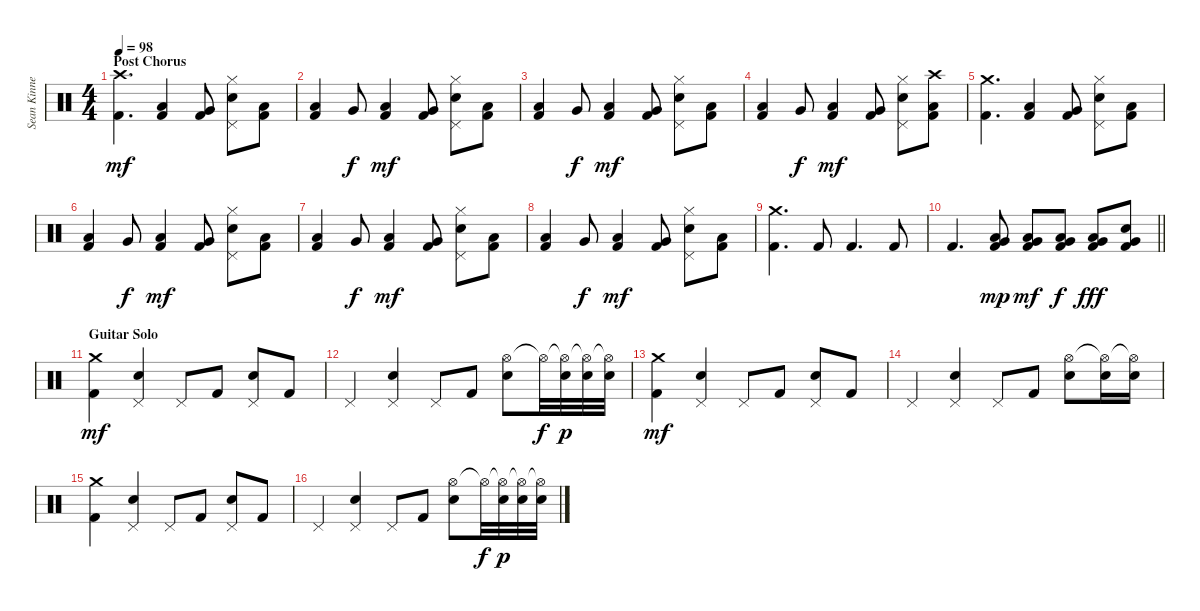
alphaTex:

\track ("Sean Kinney" "Sean Kinne") {instrument percussion}
\staff {score}
\articulation defaults
\ts (4 4)
\section ("" "Post Chorus")
\tempo 98
\clef neutral
\ks c
("Crash high (hit)" "Kick (hit) 2").4{d dy mf} ("Low Floor Tom (hit)" "Kick (hit) 2").4 ("Very Low Tom (hit)" "Kick (hit) 2").8 ("Hi-Hat (closed)" "Snare (hit) 2" "Pedal Hi-Hat (hit)").8 ("Low Floor Tom (hit)" "Kick (hit) 2").8 |
("Low Floor Tom (hit)" "Kick (hit) 2").4 "Very Low Tom (hit)".8{dy f} ("Low Floor Tom (hit)" "Kick (hit) 2").4{dy mf} ("Very Low Tom (hit)" "Kick (hit) 2").8 ("Hi-Hat (closed)" "Snare (hit) 2" "Pedal Hi-Hat (hit)").8 ("Low Floor Tom (hit)" "Kick (hit) 2").8 |
("Low Floor Tom (hit)" "Kick (hit) 2").4 "Very Low Tom (hit)".8{dy f} ("Low Floor Tom (hit)" "Kick (hit) 2").4{dy mf} ("Very Low Tom (hit)" "Kick (hit) 2").8 ("Hi-Hat (closed)" "Snare (hit) 2" "Pedal Hi-Hat (hit)").8 ("Low Floor Tom (hit)" "Kick (hit) 2").8 |
("Low Floor Tom (hit)" "Kick (hit) 2").4 "Very Low Tom (hit)".8{dy f} ("Low Floor Tom (hit)" "Kick (hit) 2").4{dy mf} ("Very Low Tom (hit)" "Kick (hit) 2").8 ("Hi-Hat (closed)" "Snare (hit) 2" "Pedal Hi-Hat (hit)").8 ("Low Floor Tom (hit)" "Crash high (hit)" "Kick (hit) 2").8 |
("Crash medium (hit)" "Kick (hit) 2").4{d} ("Low Floor Tom (hit)" "Kick (hit) 2").4 ("Very Low Tom (hit)" "Kick (hit) 2").8 ("Hi-Hat (closed)" "Snare (hit) 2" "Pedal Hi-Hat (hit)").8 ("Low Floor Tom (hit)" "Kick (hit) 2").8 |
("Low Floor Tom (hit)" "Kick (hit) 2").4 "Very Low Tom (hit)".8{dy f} ("Low Floor Tom (hit)" "Kick (hit) 2").4{dy mf} ("Very Low Tom (hit)" "Kick (hit) 2").8 ("Hi-Hat (closed)" "Snare (hit) 2" "Pedal Hi-Hat (hit)").8 ("Low Floor Tom (hit)" "Kick (hit) 2").8 |
("Low Floor Tom (hit)" "Kick (hit) 2").4 "Very Low Tom (hit)".8{dy f} ("Low Floor Tom (hit)" "Kick (hit) 2").4{dy mf} ("Very Low Tom (hit)" "Kick (hit) 2").8 ("Hi-Hat (closed)" "Snare (hit) 2" "Pedal Hi-Hat (hit)").8 ("Low Floor Tom (hit)" "Kick (hit) 2").8 |
("Low Floor Tom (hit)" "Kick (hit) 2").4 "Very Low Tom (hit)".8{dy f} ("Low Floor Tom (hit)" "Kick (hit) 2").4{dy mf} ("Very Low Tom (hit)" "Kick (hit) 2").8 ("Hi-Hat (closed)" "Snare (hit) 2" "Pedal Hi-Hat (hit)").8 ("Low Floor Tom (hit)" "Kick (hit) 2").8 |
("Crash medium (hit)" "Kick (hit) 2").4{d} "Kick (hit) 2".8 "Kick (hit) 2".4{d} "Kick (hit) 2".8 |
\barLineRight lightlight "Kick (hit) 2".4{d}
("Very Low Tom (hit)" "Low Floor Tom (hit)" "Kick (hit) 2").8{dy mp} ("Very Low Tom (hit)" "Low Floor Tom (hit)" "Kick (hit) 2").8{dy mf} ("Very Low Tom (hit)" "Low Floor Tom (hit)" "Kick (hit) 2").8{dy f} ("Very Low Tom (hit)" "Low Floor Tom (hit)" "Kick (hit) 2").8{dy fff} ("Very Low Tom (hit)" "Snare (hit) 2" "Kick (hit) 2").8 |
\section ("" "Guitar Solo")
("Crash medium (hit)" "Kick (hit) 2").4{dy mf} ("Pedal Hi-Hat (hit)" "Snare (hit) 2").4 "Pedal Hi-Hat (hit)".8 "Kick (hit) 2".8 ("Pedal Hi-Hat (hit)" "Snare (hit) 2").8 "Kick (hit) 2".8 |
"Pedal Hi-Hat (hit)".4 ("Pedal Hi-Hat (hit)" "Snare (hit) 2").4 "Pedal Hi-Hat (hit)".8 "Kick (hit) 2".8 ("Hi-Hat (open)" "Snare (hit) 2").8 "Hi-Hat (open)"{t}.32{dy f} ("Hi-Hat (open)"{t} "Snare (hit) 2").32{dy p} ("Hi-Hat (open)"{t} "Snare (hit) 2").32 ("Hi-Hat (open)"{t} "Snare (hit) 2").32 |
("Crash medium (hit)" "Kick (hit) 2").4{dy mf} ("Pedal Hi-Hat (hit)" "Snare (hit) 2").4 "Pedal Hi-Hat (hit)".8 "Kick (hit) 2".8 ("Pedal Hi-Hat (hit)" "Snare (hit) 2").8 "Kick (hit) 2".8 |
"Pedal Hi-Hat (hit)".4 ("Pedal Hi-Hat (hit)" "Snare (hit) 2").4 "Pedal Hi-Hat (hit)".8 "Kick (hit) 2".8 ("Hi-Hat (open)" "Snare (hit) 2").8 ("Hi-Hat (open)"{t} "Snare (hit) 2").16 ("Hi-Hat (open)"{t} "Snare (hit) 2").16 |
("Crash medium (hit)" "Kick (hit) 2").4 ("Pedal Hi-Hat (hit)" "Snare (hit) 2").4 "Pedal Hi-Hat (hit)".8 "Kick (hit) 2".8 ("Pedal Hi-Hat (hit)" "Snare (hit) 2").8 "Kick (hit) 2".8 |
"Pedal Hi-Hat (hit)".4 ("Pedal Hi-Hat (hit)" "Snare (hit) 2").4 "Pedal Hi-Hat (hit)".8 "Kick (hit) 2".8 ("Hi-Hat (open)" "Snare (hit) 2").8 "Hi-Hat (open)"{t}.32{dy f} ("Hi-Hat (open)"{t} "Snare (hit) 2").32{dy p} ("Hi-Hat (open)"{t} "Snare (hit) 2").32 ("Hi-Hat (open)"{t} "Snare (hit) 2").32
